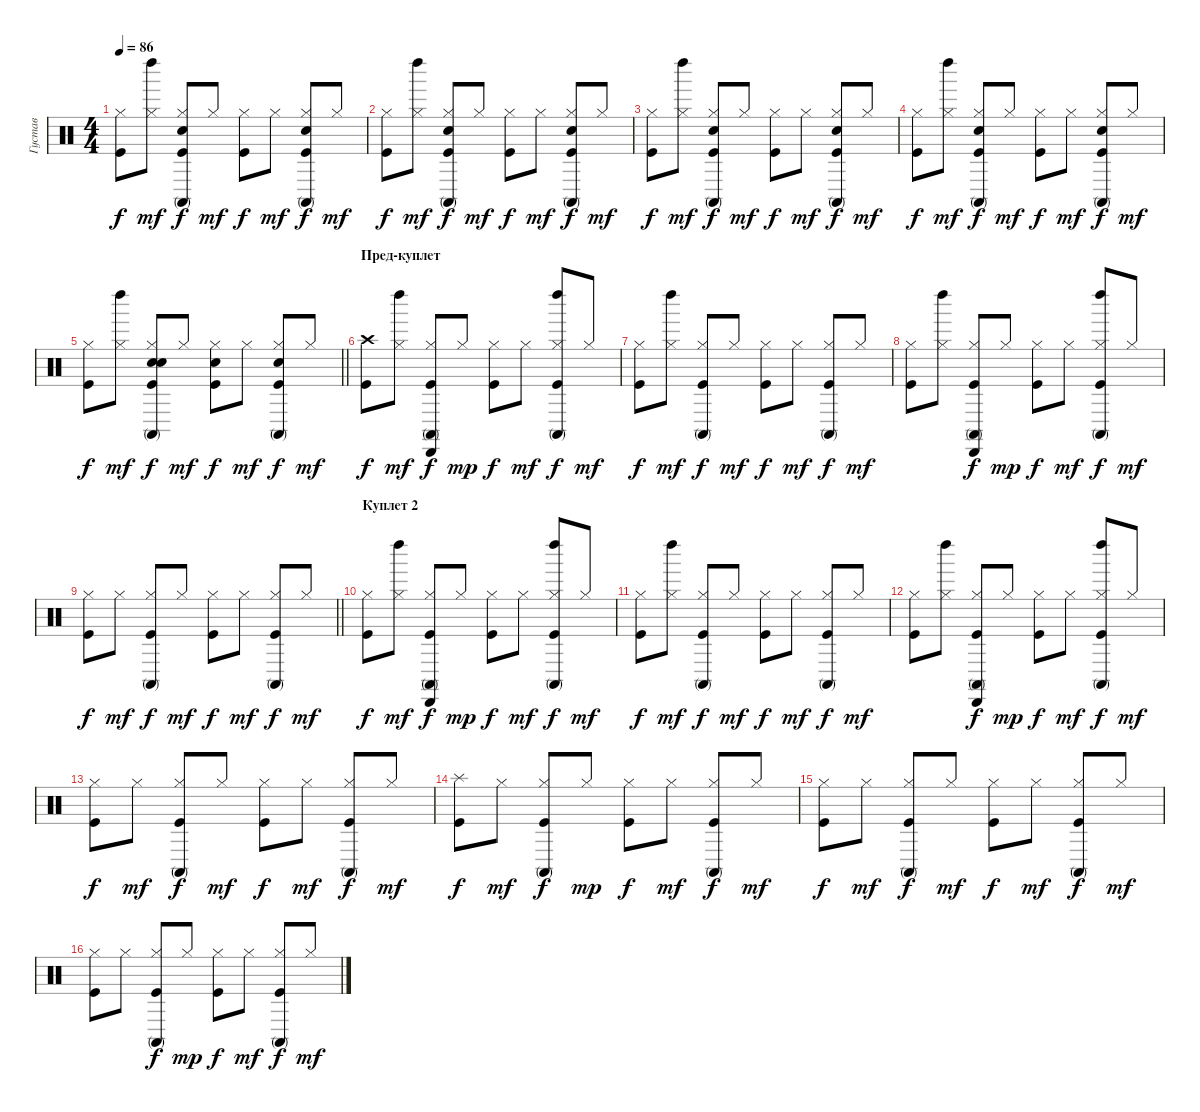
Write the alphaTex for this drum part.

\track ("Густав" "Густав") {instrument percussion}
\staff {score}
\articulation defaults
\ts (4 4)
\tempo 86
\clef neutral
\ks c
("Hi-Hat (closed)" "Kick (hit)").8{dy f} ("Hi-Hat (closed)" "Left Maraca (hit)").8{dy mf} ("Snare (hit) 2" "Conga high (mute)" "Hi-Hat (closed)" "Kick (hit)").8{dy f} "Hi-Hat (closed)".8{dy mf} ("Hi-Hat (closed)" "Kick (hit)").8{dy f} "Hi-Hat (closed)".8{dy mf} ("Snare (hit) 2" "Conga high (mute)" "Hi-Hat (closed)" "Kick (hit)").8{dy f} "Hi-Hat (closed)".8{dy mf} |
("Hi-Hat (closed)" "Kick (hit)").8{dy f} ("Hi-Hat (closed)" "Left Maraca (hit)").8{dy mf} ("Snare (hit) 2" "Conga high (mute)" "Hi-Hat (closed)" "Kick (hit)").8{dy f} "Hi-Hat (closed)".8{dy mf} ("Hi-Hat (closed)" "Kick (hit)").8{dy f} "Hi-Hat (closed)".8{dy mf} ("Snare (hit) 2" "Conga high (mute)" "Hi-Hat (closed)" "Kick (hit)").8{dy f} "Hi-Hat (closed)".8{dy mf} |
("Hi-Hat (closed)" "Kick (hit)").8{dy f} ("Hi-Hat (closed)" "Left Maraca (hit)").8{dy mf} ("Snare (hit) 2" "Conga high (mute)" "Hi-Hat (closed)" "Kick (hit)").8{dy f} "Hi-Hat (closed)".8{dy mf} ("Hi-Hat (closed)" "Kick (hit)").8{dy f} "Hi-Hat (closed)".8{dy mf} ("Snare (hit) 2" "Conga high (mute)" "Hi-Hat (closed)" "Kick (hit)").8{dy f} "Hi-Hat (closed)".8{dy mf} |
("Hi-Hat (closed)" "Kick (hit)").8{dy f} ("Hi-Hat (closed)" "Left Maraca (hit)").8{dy mf} ("Snare (hit) 2" "Conga high (mute)" "Hi-Hat (closed)" "Kick (hit)").8{dy f} "Hi-Hat (closed)".8{dy mf} ("Hi-Hat (closed)" "Kick (hit)").8{dy f} "Hi-Hat (closed)".8{dy mf} ("Snare (hit) 2" "Conga high (mute)" "Hi-Hat (closed)" "Kick (hit)").8{dy f} "Hi-Hat (closed)".8{dy mf} |
\barLineRight lightlight
("Hi-Hat (closed)" "Kick (hit)").8{dy f} ("Hi-Hat (closed)" "Left Maraca (hit)").8{dy mf} ("Snare (hit) 2" "Conga high (mute)" "Hi-Hat (closed)" "Kick (hit)" "Snare (hit) 2").8{dy f} "Hi-Hat (closed)".8{dy mf} ("Hi-Hat (closed)" "Kick (hit)" "Snare (hit) 2").8{dy f} "Hi-Hat (closed)".8{dy mf} ("Snare (hit) 2" "Conga high (mute)" "Hi-Hat (closed)" "Kick (hit)").8{dy f} "Hi-Hat (closed)".8{dy mf} |
\section ("" "Пред-куплет")
("Crash high (hit)" "Kick (hit)").8{dy f} ("Hi-Hat (closed)" "Left Maraca (hit)").8{dy mf} ("Cabasa (hit)" "Conga high (mute)" "Hi-Hat (closed)" "Kick (hit)").8{dy f} "Hi-Hat (closed)".8{dy mp} ("Hi-Hat (closed)" "Kick (hit)").8{dy f} "Hi-Hat (closed)".8{dy mf} ("Left Maraca (hit)" "Conga high (mute)" "Hi-Hat (closed)" "Kick (hit)").8{dy f} "Hi-Hat (closed)".8{dy mf} |
("Hi-Hat (closed)" "Kick (hit)").8{dy f} ("Hi-Hat (closed)" "Left Maraca (hit)").8{dy mf} ("Conga high (mute)" "Hi-Hat (closed)" "Kick (hit)").8{dy f} "Hi-Hat (closed)".8{dy mf} ("Hi-Hat (closed)" "Kick (hit)").8{dy f} "Hi-Hat (closed)".8{dy mf} ("Conga high (mute)" "Hi-Hat (closed)" "Kick (hit)").8{dy f} "Hi-Hat (closed)".8{dy mf} |
("Hi-Hat (closed)" "Kick (hit)").8 ("Hi-Hat (closed)" "Left Maraca (hit)").8 ("Cabasa (hit)" "Conga high (mute)" "Hi-Hat (closed)" "Kick (hit)").8{dy f} "Hi-Hat (closed)".8{dy mp} ("Hi-Hat (closed)" "Kick (hit)").8{dy f} "Hi-Hat (closed)".8{dy mf} ("Conga high (mute)" "Hi-Hat (closed)" "Kick (hit)" "Left Maraca (hit)").8{dy f} "Hi-Hat (closed)".8{dy mf} |
\barLineRight lightlight
("Hi-Hat (closed)" "Kick (hit)").8{dy f} "Hi-Hat (closed)".8{dy mf} ("Conga high (mute)" "Hi-Hat (closed)" "Kick (hit)").8{dy f} "Hi-Hat (closed)".8{dy mf} ("Hi-Hat (closed)" "Kick (hit)").8{dy f} "Hi-Hat (closed)".8{dy mf} ("Conga high (mute)" "Hi-Hat (closed)" "Kick (hit)").8{dy f} "Hi-Hat (closed)".8{dy mf} |
\section ("" "Куплет 2")
("Hi-Hat (closed)" "Kick (hit)").8{dy f} ("Hi-Hat (closed)" "Left Maraca (hit)").8{dy mf} ("Cabasa (hit)" "Conga high (mute)" "Hi-Hat (closed)" "Kick (hit)").8{dy f} "Hi-Hat (closed)".8{dy mp} ("Hi-Hat (closed)" "Kick (hit)").8{dy f} "Hi-Hat (closed)".8{dy mf} ("Left Maraca (hit)" "Conga high (mute)" "Hi-Hat (closed)" "Kick (hit)").8{dy f} "Hi-Hat (closed)".8{dy mf} |
("Hi-Hat (closed)" "Kick (hit)").8{dy f} ("Hi-Hat (closed)" "Left Maraca (hit)").8{dy mf} ("Conga high (mute)" "Hi-Hat (closed)" "Kick (hit)").8{dy f} "Hi-Hat (closed)".8{dy mf} ("Hi-Hat (closed)" "Kick (hit)").8{dy f} "Hi-Hat (closed)".8{dy mf} ("Conga high (mute)" "Hi-Hat (closed)" "Kick (hit)").8{dy f} "Hi-Hat (closed)".8{dy mf} |
("Hi-Hat (closed)" "Kick (hit)").8 ("Hi-Hat (closed)" "Left Maraca (hit)").8 ("Cabasa (hit)" "Conga high (mute)" "Hi-Hat (closed)" "Kick (hit)").8{dy f} "Hi-Hat (closed)".8{dy mp} ("Hi-Hat (closed)" "Kick (hit)").8{dy f} "Hi-Hat (closed)".8{dy mf} ("Conga high (mute)" "Hi-Hat (closed)" "Kick (hit)" "Left Maraca (hit)").8{dy f} "Hi-Hat (closed)".8{dy mf} |
("Hi-Hat (closed)" "Kick (hit)").8{dy f} "Hi-Hat (closed)".8{dy mf} ("Conga high (mute)" "Hi-Hat (closed)" "Kick (hit)").8{dy f} "Hi-Hat (closed)".8{dy mf} ("Hi-Hat (closed)" "Kick (hit)").8{dy f} "Hi-Hat (closed)".8{dy mf} ("Conga high (mute)" "Hi-Hat (closed)" "Kick (hit)").8{dy f} "Hi-Hat (closed)".8{dy mf} |
("Splash (hit)" "Kick (hit)").8{dy f} "Hi-Hat (closed)".8{dy mf} ("Conga high (mute)" "Hi-Hat (closed)" "Kick (hit)").8{dy f} "Hi-Hat (closed)".8{dy mp} ("Hi-Hat (closed)" "Kick (hit)").8{dy f} "Hi-Hat (closed)".8{dy mf} ("Conga high (mute)" "Hi-Hat (closed)" "Kick (hit)").8{dy f} "Hi-Hat (closed)".8{dy mf} |
("Hi-Hat (closed)" "Kick (hit)").8{dy f} "Hi-Hat (closed)".8{dy mf} ("Conga high (mute)" "Hi-Hat (closed)" "Kick (hit)").8{dy f} "Hi-Hat (closed)".8{dy mf} ("Hi-Hat (closed)" "Kick (hit)").8{dy f} "Hi-Hat (closed)".8{dy mf} ("Conga high (mute)" "Hi-Hat (closed)" "Kick (hit)").8{dy f} "Hi-Hat (closed)".8{dy mf} |
("Hi-Hat (closed)" "Kick (hit)").8 "Hi-Hat (closed)".8 ("Conga high (mute)" "Hi-Hat (closed)" "Kick (hit)").8{dy f} "Hi-Hat (closed)".8{dy mp} ("Hi-Hat (closed)" "Kick (hit)").8{dy f} "Hi-Hat (closed)".8{dy mf} ("Conga high (mute)" "Hi-Hat (closed)" "Kick (hit)").8{dy f} "Hi-Hat (closed)".8{dy mf}
